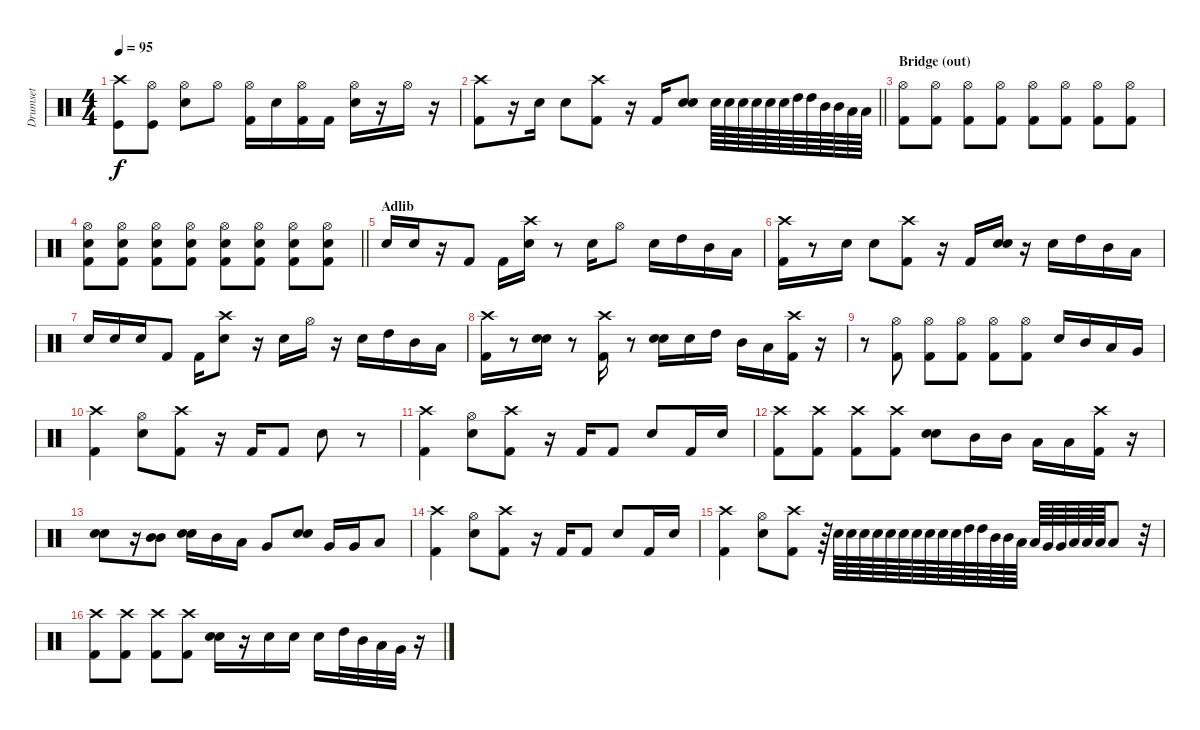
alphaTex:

\track ("Drumset" "Drumset") {solo instrument percussion}
\staff {score}
\articulation defaults
\ts (4 4)
\tempo 95
\clef neutral
\ks c
("Crash high (hit)" "Kick (hit)").8{dy f} ("Hi-Hat (open)" "Kick (hit)").8 ("Hi-Hat (open)" "Snare (hit) 2").8 "Hi-Hat (open)".8 ("Hi-Hat (open)" "Kick (hit) 2").16 "Snare (hit) 2".16 ("Hi-Hat (open)" "Kick (hit) 2").16 "Kick (hit) 2".16 ("Hi-Hat (open)" "Snare (hit) 2").16 r.16 "Hi-Hat (open)".16 r.16 |
\barLineRight lightlight
("Crash high (hit)" "Kick (hit) 2").8 r.16 "Snare (hit) 2".16 "Snare (hit) 2".8 ("Crash high (hit)" "Kick (hit) 2").8 r.16 "Kick (hit) 2".16 ("Snare (hit) 2" "Snare (hit) 2").8 "Snare (hit) 2".64 "Snare (hit) 2".64 "Snare (hit) 2".64 "Snare (hit) 2".64 "Snare (hit) 2".64 "Snare (hit) 2".64 "High Tom (hit)".64 "High Tom (hit)".64 "Mid Tom (hit)".64 "Mid Tom (hit)".64 "Low Tom (hit)".64 "Low Tom (hit)".64 |
\section ("" "Bridge (out)")
("Hi-Hat (open)" "Kick (hit) 2").8 ("Hi-Hat (open)" "Kick (hit) 2").8 ("Hi-Hat (open)" "Kick (hit) 2").8 ("Hi-Hat (open)" "Kick (hit) 2").8 ("Hi-Hat (open)" "Kick (hit) 2").8 ("Hi-Hat (open)" "Kick (hit) 2").8 ("Hi-Hat (open)" "Kick (hit) 2").8 ("Hi-Hat (open)" "Kick (hit) 2").8 |
\barLineRight lightlight
("Hi-Hat (open)" "Snare (hit) 2" "Kick (hit) 2").8 ("Hi-Hat (open)" "Snare (hit) 2" "Kick (hit) 2").8 ("Hi-Hat (open)" "Snare (hit) 2" "Kick (hit) 2").8 ("Hi-Hat (open)" "Snare (hit) 2" "Kick (hit) 2").8 ("Hi-Hat (open)" "Snare (hit) 2" "Kick (hit) 2").8 ("Hi-Hat (open)" "Snare (hit) 2" "Kick (hit) 2").8 ("Hi-Hat (open)" "Snare (hit) 2" "Kick (hit) 2").8 ("Hi-Hat (open)" "Snare (hit) 2" "Kick (hit) 2").8 |
\section ("" "Adlib")
"Snare (hit) 2".16 "Snare (hit) 2".16 r.16 "Kick (hit) 2".8 "Kick (hit) 2".16 ("Crash high (hit)" "Snare (hit) 2").16 r.8 "Snare (hit) 2".16 "Hi-Hat (open)".8 "Snare (hit) 2".16 "High Tom (hit)".16 "Mid Tom (hit)".16 "Low Tom (hit)".16 |
("Crash high (hit)" "Kick (hit) 2").16 r.8 "Snare (hit) 2".16 "Snare (hit) 2".8 ("Crash high (hit)" "Kick (hit) 2").8 r.16 "Kick (hit) 2".16 ("Snare (hit) 2" "Snare (hit) 2").16 r.16 "Snare (hit) 2".16 "High Tom (hit)".16 "Mid Tom (hit)".16 "Low Tom (hit)".16 |
"Snare (hit) 2".16 "Snare (hit) 2".16 "Snare (hit) 2".16 "Kick (hit) 2".8 "Kick (hit) 2".16 ("Crash high (hit)" "Snare (hit) 2").8 r.16 "Snare (hit) 2".16 "Hi-Hat (open)".16 r.16 "Snare (hit) 2".16 "High Tom (hit)".16 "Mid Tom (hit)".16 "Low Tom (hit)".16 |
("Crash high (hit)" "Kick (hit) 2").16 r.8 ("Snare (hit) 2" "Snare (hit) 2").16 r.8 ("Crash high (hit)" "Kick (hit) 2").16 r.8 ("Snare (hit) 2" "Snare (hit) 2").16 "Snare (hit) 2".16 "High Tom (hit)".16 "Mid Tom (hit)".16 "Low Tom (hit)".16 ("Crash high (hit)" "Kick (hit) 2").16 r.16 |
r.8 ("Hi-Hat (open)" "Kick (hit) 2").8 ("Hi-Hat (open)" "Kick (hit) 2").8 ("Hi-Hat (open)" "Kick (hit) 2").8 ("Hi-Hat (open)" "Kick (hit) 2").8 ("Hi-Hat (open)" "Kick (hit) 2").8 "Snare (hit) 2".16 "Mid Tom (hit)".16 "Low Tom (hit)".16 "Very Low Tom (hit)".16 |
("Crash high (hit)" "Kick (hit) 2").4 ("Hi-Hat (open)" "Snare (hit) 2").8 ("Crash high (hit)" "Kick (hit) 2").8 r.16 "Kick (hit) 2".16 "Kick (hit) 2".8 "Snare (hit) 2".8 r.8 |
("Crash high (hit)" "Kick (hit) 2").4 ("Hi-Hat (open)" "Snare (hit) 2").8 ("Crash high (hit)" "Kick (hit) 2").8 r.16 "Kick (hit) 2".16 "Kick (hit) 2".8 "Snare (hit) 2".8 "Kick (hit) 2".16 "Snare (hit) 2".16 |
("Crash high (hit)" "Kick (hit) 2").8 ("Crash high (hit)" "Kick (hit) 2").8 ("Crash high (hit)" "Kick (hit) 2").8 ("Crash high (hit)" "Kick (hit) 2").8 ("Snare (hit) 2" "Snare (hit) 2").8 "Mid Tom (hit)".16 "Mid Tom (hit)".16 "Low Tom (hit)".16 "Low Tom (hit)".16 ("Crash high (hit)" "Kick (hit) 2").16 r.16 |
("Snare (hit) 2" "Snare (hit) 2").8 r.16 ("Mid Tom (hit)" "Mid Tom (hit)").8 ("Snare (hit) 2" "Snare (hit) 2").16 "Mid Tom (hit)".16 "Low Tom (hit)".16 "Very Low Tom (hit)".8 ("Snare (hit) 2" "Snare (hit) 2").8 "Very Low Tom (hit)".16 "Very Low Tom (hit)".16 "Low Floor Tom (hit)".8 |
("Crash high (hit)" "Kick (hit) 2").4 ("Hi-Hat (open)" "Snare (hit) 2").8 ("Crash high (hit)" "Kick (hit) 2").8 r.16 "Kick (hit) 2".16 "Kick (hit) 2".8 "Snare (hit) 2".8 "Kick (hit) 2".16 "Snare (hit) 2".16 |
("Crash high (hit)" "Kick (hit) 2").4 ("Hi-Hat (open)" "Snare (hit) 2").8 ("Crash high (hit)" "Kick (hit) 2").8 r.64 "Snare (hit) 2".64 "Snare (hit) 2".64 "Snare (hit) 2".64 "Snare (hit) 2".64 "Snare (hit) 2".64 "Snare (hit) 2".64 "Snare (hit) 2".64 "Snare (hit) 2".64 "Snare (hit) 2".64 "Snare (hit) 2".64 "High Tom (hit)".64 "High Tom (hit)".64 "Mid Tom (hit)".64 "Mid Tom (hit)".64 "Low Tom (hit)".64 "Low Tom (hit)".64 "Very Low Tom (hit)".64 "Very Low Tom (hit)".64 "Low Floor Tom (hit)".64 "Low Floor Tom (hit)".64 "Low Floor Tom (hit)".64 "Low Floor Tom (hit)".8 r.32 |
("Crash high (hit)" "Kick (hit) 2").8 ("Crash high (hit)" "Kick (hit) 2").8 ("Crash high (hit)" "Kick (hit) 2").8 ("Crash high (hit)" "Kick (hit) 2").8 ("Snare (hit) 2" "Snare (hit) 2").16 r.16 "Snare (hit) 2".16 "Snare (hit) 2".16 "Snare (hit) 2".16 "High Tom (hit)".32 "Mid Tom (hit)".32 "Low Tom (hit)".32 "Very Low Tom (hit)".32 r.16
